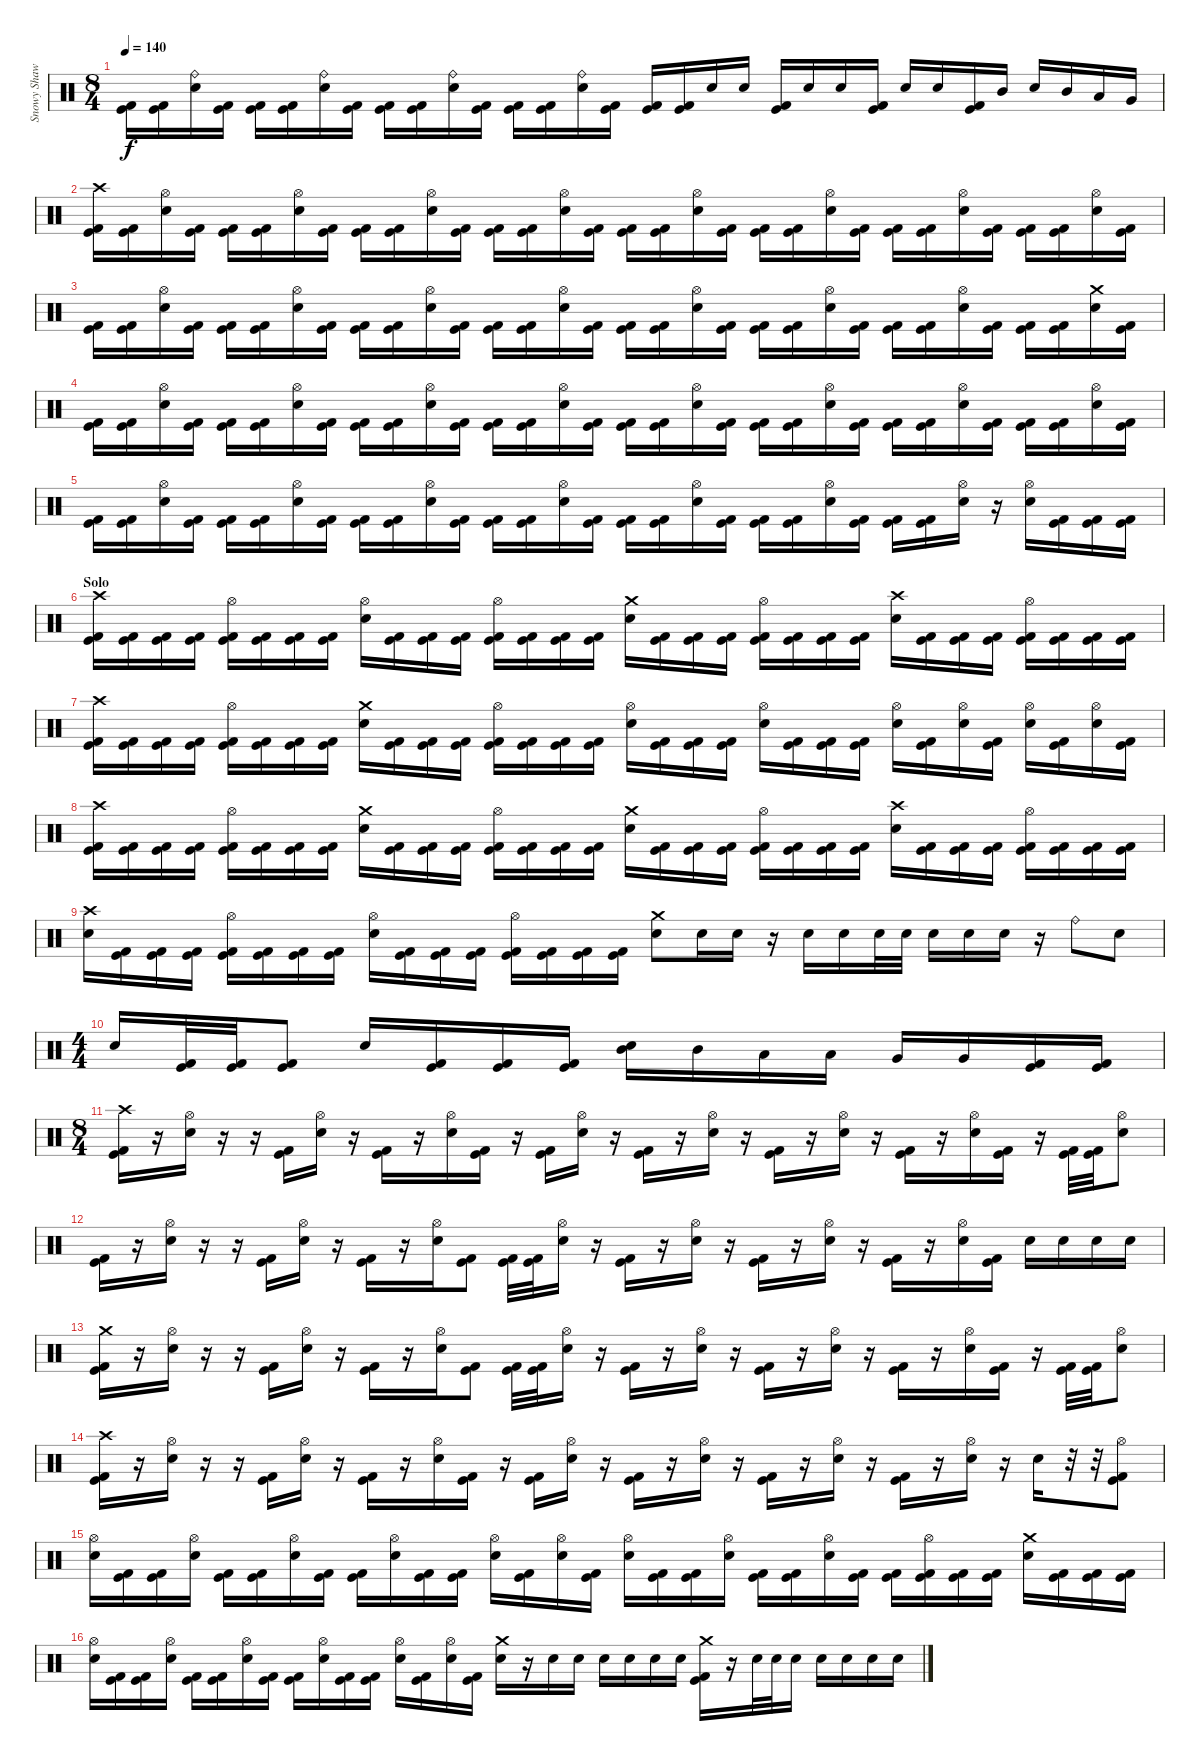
\track ("Snowy Shaw" "Snowy Shaw") {instrument percussion}
\staff {score}
\articulation defaults
\ts (8 4)
\tempo 140
\clef neutral
\ks c
("Kick (hit)" "Kick (hit) 2").16{dy f} ("Kick (hit)" "Kick (hit) 2").16 ("Ride (bell)" "Electric Snare (hit)").16 ("Kick (hit)" "Kick (hit) 2").16 ("Kick (hit)" "Kick (hit) 2").16 ("Kick (hit)" "Kick (hit) 2").16 ("Ride (bell)" "Electric Snare (hit)").16 ("Kick (hit)" "Kick (hit) 2").16 ("Kick (hit)" "Kick (hit) 2").16 ("Kick (hit)" "Kick (hit) 2").16 ("Ride (bell)" "Electric Snare (hit)").16 ("Kick (hit)" "Kick (hit) 2").16 ("Kick (hit)" "Kick (hit) 2").16 ("Kick (hit)" "Kick (hit) 2").16 ("Ride (bell)" "Electric Snare (hit)").16 ("Kick (hit)" "Kick (hit) 2").16 ("Kick (hit)" "Kick (hit) 2").16 ("Kick (hit)" "Kick (hit) 2").16 "Electric Snare (hit)".16 "Electric Snare (hit)".16 ("Kick (hit)" "Kick (hit) 2").16 "Electric Snare (hit)".16 "Electric Snare (hit)".16 ("Kick (hit)" "Kick (hit) 2").16 "Electric Snare (hit)".16 "Electric Snare (hit)".16 ("Kick (hit) 2" "Kick (hit)").16 "Mid Tom (hit)".16 "Electric Snare (hit)".16 "Mid Tom (hit)".16 "Low Tom (hit)".16 "Very Low Tom (hit)".16 |
("Crash high (hit)" "Kick (hit)" "Kick (hit) 2").16 ("Kick (hit)" "Kick (hit) 2").16 ("Hi-Hat (open)" "Electric Snare (hit)").16 ("Kick (hit)" "Kick (hit) 2").16 ("Kick (hit)" "Kick (hit) 2").16 ("Kick (hit)" "Kick (hit) 2").16 ("Hi-Hat (open)" "Electric Snare (hit)").16 ("Kick (hit)" "Kick (hit) 2").16 ("Kick (hit)" "Kick (hit) 2").16 ("Kick (hit)" "Kick (hit) 2").16 ("Hi-Hat (open)" "Electric Snare (hit)").16 ("Kick (hit)" "Kick (hit) 2").16 ("Kick (hit)" "Kick (hit) 2").16 ("Kick (hit)" "Kick (hit) 2").16 ("Hi-Hat (open)" "Electric Snare (hit)").16 ("Kick (hit)" "Kick (hit) 2").16 ("Kick (hit)" "Kick (hit) 2").16 ("Kick (hit)" "Kick (hit) 2").16 ("Hi-Hat (open)" "Electric Snare (hit)").16 ("Kick (hit)" "Kick (hit) 2").16 ("Kick (hit)" "Kick (hit) 2").16 ("Kick (hit)" "Kick (hit) 2").16 ("Hi-Hat (open)" "Electric Snare (hit)").16 ("Kick (hit)" "Kick (hit) 2").16 ("Kick (hit)" "Kick (hit) 2").16 ("Kick (hit)" "Kick (hit) 2").16 ("Hi-Hat (open)" "Electric Snare (hit)").16 ("Kick (hit)" "Kick (hit) 2").16 ("Kick (hit)" "Kick (hit) 2").16 ("Kick (hit)" "Kick (hit) 2").16 ("Hi-Hat (open)" "Electric Snare (hit)").16 ("Kick (hit)" "Kick (hit) 2").16 |
("Kick (hit)" "Kick (hit) 2").16 ("Kick (hit)" "Kick (hit) 2").16 ("Hi-Hat (open)" "Electric Snare (hit)").16 ("Kick (hit)" "Kick (hit) 2").16 ("Kick (hit)" "Kick (hit) 2").16 ("Kick (hit)" "Kick (hit) 2").16 ("Hi-Hat (open)" "Electric Snare (hit)").16 ("Kick (hit)" "Kick (hit) 2").16 ("Kick (hit)" "Kick (hit) 2").16 ("Kick (hit)" "Kick (hit) 2").16 ("Hi-Hat (open)" "Electric Snare (hit)").16 ("Kick (hit)" "Kick (hit) 2").16 ("Kick (hit)" "Kick (hit) 2").16 ("Kick (hit)" "Kick (hit) 2").16 ("Hi-Hat (open)" "Electric Snare (hit)").16 ("Kick (hit)" "Kick (hit) 2").16 ("Kick (hit)" "Kick (hit) 2").16 ("Kick (hit)" "Kick (hit) 2").16 ("Hi-Hat (open)" "Electric Snare (hit)").16 ("Kick (hit)" "Kick (hit) 2").16 ("Kick (hit)" "Kick (hit) 2").16 ("Kick (hit)" "Kick (hit) 2").16 ("Hi-Hat (open)" "Electric Snare (hit)").16 ("Kick (hit)" "Kick (hit) 2").16 ("Kick (hit)" "Kick (hit) 2").16 ("Kick (hit)" "Kick (hit) 2").16 ("Hi-Hat (open)" "Electric Snare (hit)").16 ("Kick (hit)" "Kick (hit) 2").16 ("Kick (hit)" "Kick (hit) 2").16 ("Kick (hit)" "Kick (hit) 2").16 ("Crash medium (hit)" "Electric Snare (hit)").16 ("Kick (hit)" "Kick (hit) 2").16 |
("Kick (hit)" "Kick (hit) 2").16 ("Kick (hit)" "Kick (hit) 2").16 ("Hi-Hat (open)" "Electric Snare (hit)").16 ("Kick (hit)" "Kick (hit) 2").16 ("Kick (hit)" "Kick (hit) 2").16 ("Kick (hit)" "Kick (hit) 2").16 ("Hi-Hat (open)" "Electric Snare (hit)").16 ("Kick (hit)" "Kick (hit) 2").16 ("Kick (hit)" "Kick (hit) 2").16 ("Kick (hit)" "Kick (hit) 2").16 ("Hi-Hat (open)" "Electric Snare (hit)").16 ("Kick (hit)" "Kick (hit) 2").16 ("Kick (hit)" "Kick (hit) 2").16 ("Kick (hit)" "Kick (hit) 2").16 ("Hi-Hat (open)" "Electric Snare (hit)").16 ("Kick (hit)" "Kick (hit) 2").16 ("Kick (hit)" "Kick (hit) 2").16 ("Kick (hit)" "Kick (hit) 2").16 ("Hi-Hat (open)" "Electric Snare (hit)").16 ("Kick (hit)" "Kick (hit) 2").16 ("Kick (hit)" "Kick (hit) 2").16 ("Kick (hit)" "Kick (hit) 2").16 ("Hi-Hat (open)" "Electric Snare (hit)").16 ("Kick (hit)" "Kick (hit) 2").16 ("Kick (hit)" "Kick (hit) 2").16 ("Kick (hit)" "Kick (hit) 2").16 ("Hi-Hat (open)" "Electric Snare (hit)").16 ("Kick (hit)" "Kick (hit) 2").16 ("Kick (hit)" "Kick (hit) 2").16 ("Kick (hit)" "Kick (hit) 2").16 ("Hi-Hat (open)" "Electric Snare (hit)").16 ("Kick (hit)" "Kick (hit) 2").16 |
("Kick (hit)" "Kick (hit) 2").16 ("Kick (hit)" "Kick (hit) 2").16 ("Hi-Hat (open)" "Electric Snare (hit)").16 ("Kick (hit)" "Kick (hit) 2").16 ("Kick (hit)" "Kick (hit) 2").16 ("Kick (hit)" "Kick (hit) 2").16 ("Hi-Hat (open)" "Electric Snare (hit)").16 ("Kick (hit)" "Kick (hit) 2").16 ("Kick (hit)" "Kick (hit) 2").16 ("Kick (hit)" "Kick (hit) 2").16 ("Hi-Hat (open)" "Electric Snare (hit)").16 ("Kick (hit)" "Kick (hit) 2").16 ("Kick (hit)" "Kick (hit) 2").16 ("Kick (hit)" "Kick (hit) 2").16 ("Hi-Hat (open)" "Electric Snare (hit)").16 ("Kick (hit)" "Kick (hit) 2").16 ("Kick (hit)" "Kick (hit) 2").16 ("Kick (hit)" "Kick (hit) 2").16 ("Hi-Hat (open)" "Electric Snare (hit)").16 ("Kick (hit)" "Kick (hit) 2").16 ("Kick (hit)" "Kick (hit) 2").16 ("Kick (hit)" "Kick (hit) 2").16 ("Hi-Hat (open)" "Electric Snare (hit)").16 ("Kick (hit)" "Kick (hit) 2").16 ("Kick (hit)" "Kick (hit) 2").16 ("Kick (hit)" "Kick (hit) 2").16 ("Hi-Hat (open)" "Electric Snare (hit)").16 r.16 ("Hi-Hat (open)" "Electric Snare (hit)").16 ("Kick (hit)" "Kick (hit) 2").16 ("Kick (hit) 2" "Kick (hit)").16 ("Kick (hit)" "Kick (hit) 2").16 |
\section ("" "Solo")
("Crash high (hit)" "Kick (hit)" "Kick (hit) 2").16 ("Kick (hit)" "Kick (hit) 2").16 ("Kick (hit)" "Kick (hit) 2").16 ("Kick (hit)" "Kick (hit) 2").16 ("Hi-Hat (open)" "Kick (hit)" "Kick (hit) 2").16 ("Kick (hit)" "Kick (hit) 2").16 ("Kick (hit)" "Kick (hit) 2").16 ("Kick (hit)" "Kick (hit) 2").16 ("Hi-Hat (open)" "Electric Snare (hit)").16 ("Kick (hit)" "Kick (hit) 2").16 ("Kick (hit)" "Kick (hit) 2").16 ("Kick (hit)" "Kick (hit) 2").16 ("Hi-Hat (open)" "Kick (hit)" "Kick (hit) 2").16 ("Kick (hit)" "Kick (hit) 2").16 ("Kick (hit)" "Kick (hit) 2").16 ("Kick (hit)" "Kick (hit) 2").16 ("Crash medium (hit)" "Electric Snare (hit)").16 ("Kick (hit)" "Kick (hit) 2").16 ("Kick (hit)" "Kick (hit) 2").16 ("Kick (hit)" "Kick (hit) 2").16 ("Hi-Hat (open)" "Kick (hit)" "Kick (hit) 2").16 ("Kick (hit)" "Kick (hit) 2").16 ("Kick (hit)" "Kick (hit) 2").16 ("Kick (hit)" "Kick (hit) 2").16 ("Crash high (hit)" "Electric Snare (hit)").16 ("Kick (hit)" "Kick (hit) 2").16 ("Kick (hit)" "Kick (hit) 2").16 ("Kick (hit)" "Kick (hit) 2").16 ("Hi-Hat (open)" "Kick (hit)" "Kick (hit) 2").16 ("Kick (hit)" "Kick (hit) 2").16 ("Kick (hit)" "Kick (hit) 2").16 ("Kick (hit)" "Kick (hit) 2").16 |
("Crash high (hit)" "Kick (hit)" "Kick (hit) 2").16 ("Kick (hit)" "Kick (hit) 2").16 ("Kick (hit)" "Kick (hit) 2").16 ("Kick (hit)" "Kick (hit) 2").16 ("Hi-Hat (open)" "Kick (hit)" "Kick (hit) 2").16 ("Kick (hit)" "Kick (hit) 2").16 ("Kick (hit)" "Kick (hit) 2").16 ("Kick (hit)" "Kick (hit) 2").16 ("Crash medium (hit)" "Electric Snare (hit)").16 ("Kick (hit)" "Kick (hit) 2").16 ("Kick (hit)" "Kick (hit) 2").16 ("Kick (hit)" "Kick (hit) 2").16 ("Hi-Hat (open)" "Kick (hit)" "Kick (hit) 2").16 ("Kick (hit)" "Kick (hit) 2").16 ("Kick (hit)" "Kick (hit) 2").16 ("Kick (hit)" "Kick (hit) 2").16 ("Hi-Hat (open)" "Electric Snare (hit)").16 ("Kick (hit)" "Kick (hit) 2").16 ("Kick (hit)" "Kick (hit) 2").16 ("Kick (hit)" "Kick (hit) 2").16 ("Hi-Hat (open)" "Electric Snare (hit)").16 ("Kick (hit)" "Kick (hit) 2").16 ("Kick (hit)" "Kick (hit) 2").16 ("Kick (hit)" "Kick (hit) 2").16 ("Hi-Hat (open)" "Electric Snare (hit)").16 ("Kick (hit)" "Kick (hit) 2").16 ("Hi-Hat (open)" "Electric Snare (hit)").16 ("Kick (hit)" "Kick (hit) 2").16 ("Hi-Hat (open)" "Electric Snare (hit)").16 ("Kick (hit)" "Kick (hit) 2").16 ("Hi-Hat (open)" "Electric Snare (hit)").16 ("Kick (hit)" "Kick (hit) 2").16 |
("Crash high (hit)" "Kick (hit)" "Kick (hit) 2").16 ("Kick (hit)" "Kick (hit) 2").16 ("Kick (hit)" "Kick (hit) 2").16 ("Kick (hit)" "Kick (hit) 2").16 ("Hi-Hat (open)" "Kick (hit)" "Kick (hit) 2").16 ("Kick (hit)" "Kick (hit) 2").16 ("Kick (hit)" "Kick (hit) 2").16 ("Kick (hit)" "Kick (hit) 2").16 ("Crash medium (hit)" "Electric Snare (hit)").16 ("Kick (hit)" "Kick (hit) 2").16 ("Kick (hit)" "Kick (hit) 2").16 ("Kick (hit)" "Kick (hit) 2").16 ("Hi-Hat (open)" "Kick (hit)" "Kick (hit) 2").16 ("Kick (hit)" "Kick (hit) 2").16 ("Kick (hit)" "Kick (hit) 2").16 ("Kick (hit)" "Kick (hit) 2").16 ("Crash medium (hit)" "Electric Snare (hit)").16 ("Kick (hit)" "Kick (hit) 2").16 ("Kick (hit)" "Kick (hit) 2").16 ("Kick (hit)" "Kick (hit) 2").16 ("Hi-Hat (open)" "Kick (hit)" "Kick (hit) 2").16 ("Kick (hit)" "Kick (hit) 2").16 ("Kick (hit)" "Kick (hit) 2").16 ("Kick (hit)" "Kick (hit) 2").16 ("Crash high (hit)" "Electric Snare (hit)").16 ("Kick (hit)" "Kick (hit) 2").16 ("Kick (hit)" "Kick (hit) 2").16 ("Kick (hit)" "Kick (hit) 2").16 ("Hi-Hat (open)" "Kick (hit)" "Kick (hit) 2").16 ("Kick (hit)" "Kick (hit) 2").16 ("Kick (hit)" "Kick (hit) 2").16 ("Kick (hit)" "Kick (hit) 2").16 |
("Crash high (hit)" "Electric Snare (hit)").16 ("Kick (hit)" "Kick (hit) 2").16 ("Kick (hit)" "Kick (hit) 2").16 ("Kick (hit)" "Kick (hit) 2").16 ("Hi-Hat (open)" "Kick (hit)" "Kick (hit) 2").16 ("Kick (hit)" "Kick (hit) 2").16 ("Kick (hit)" "Kick (hit) 2").16 ("Kick (hit)" "Kick (hit) 2").16 ("Hi-Hat (open)" "Electric Snare (hit)").16 ("Kick (hit)" "Kick (hit) 2").16 ("Kick (hit)" "Kick (hit) 2").16 ("Kick (hit)" "Kick (hit) 2").16 ("Hi-Hat (open)" "Kick (hit)" "Kick (hit) 2").16 ("Kick (hit)" "Kick (hit) 2").16 ("Kick (hit)" "Kick (hit) 2").16 ("Kick (hit)" "Kick (hit) 2").16 ("Crash medium (hit)" "Electric Snare (hit)").8 "Electric Snare (hit)".16 "Electric Snare (hit)".16 r.16 "Electric Snare (hit)".16 "Electric Snare (hit)".16 "Electric Snare (hit)".32 "Electric Snare (hit)".32 "Electric Snare (hit)".16 "Electric Snare (hit)".16 "Electric Snare (hit)".16 r.16 "Ride (bell)".8 "Electric Snare (hit)".8 |
\ts (4 4)
"Electric Snare (hit)".16 ("Kick (hit)" "Kick (hit) 2").32 ("Kick (hit)" "Kick (hit) 2").32 ("Kick (hit)" "Kick (hit) 2").8 "Electric Snare (hit)".16 ("Kick (hit)" "Kick (hit) 2").16 ("Kick (hit)" "Kick (hit) 2").16 ("Kick (hit)" "Kick (hit) 2").16 ("Mid Tom (hit)" "Electric Snare (hit)").16 "Mid Tom (hit)".16 "Low Tom (hit)".16 "Low Tom (hit)".16 "Very Low Tom (hit)".16 "Very Low Tom (hit)".16 ("Kick (hit) 2" "Kick (hit)").16 ("Kick (hit) 2" "Kick (hit)").16 |
\ts (8 4)
("Crash high (hit)" "Kick (hit)" "Kick (hit) 2").16 r.16 ("Hi-Hat (open)" "Electric Snare (hit)").16 r.16 r.16 ("Kick (hit)" "Kick (hit) 2").16 ("Hi-Hat (open)" "Electric Snare (hit)").16 r.16 ("Kick (hit)" "Kick (hit) 2").16 r.16 ("Hi-Hat (open)" "Electric Snare (hit)").16 ("Kick (hit)" "Kick (hit) 2").16 r.16 ("Kick (hit)" "Kick (hit) 2").16 ("Hi-Hat (open)" "Electric Snare (hit)").16 r.16 ("Kick (hit)" "Kick (hit) 2").16 r.16 ("Hi-Hat (open)" "Electric Snare (hit)").16 r.16 ("Kick (hit)" "Kick (hit) 2").16 r.16 ("Hi-Hat (open)" "Electric Snare (hit)").16 r.16 ("Kick (hit)" "Kick (hit) 2").16 r.16 ("Hi-Hat (open)" "Electric Snare (hit)").16 ("Kick (hit)" "Kick (hit) 2").16 r.16 ("Kick (hit)" "Kick (hit) 2").32 ("Kick (hit)" "Kick (hit) 2").32 ("Hi-Hat (open)" "Electric Snare (hit)").8 |
("Kick (hit)" "Kick (hit) 2").16 r.16 ("Hi-Hat (open)" "Electric Snare (hit)").16 r.16 r.16 ("Kick (hit)" "Kick (hit) 2").16 ("Hi-Hat (open)" "Electric Snare (hit)").16 r.16 ("Kick (hit)" "Kick (hit) 2").16 r.16 ("Hi-Hat (open)" "Electric Snare (hit)").16 ("Kick (hit)" "Kick (hit) 2").8 ("Kick (hit) 2" "Kick (hit)").32 ("Kick (hit)" "Kick (hit) 2").32 ("Hi-Hat (open)" "Electric Snare (hit)").16 r.16 ("Kick (hit)" "Kick (hit) 2").16 r.16 ("Hi-Hat (open)" "Electric Snare (hit)").16 r.16 ("Kick (hit)" "Kick (hit) 2").16 r.16 ("Hi-Hat (open)" "Electric Snare (hit)").16 r.16 ("Kick (hit)" "Kick (hit) 2").16 r.16 ("Hi-Hat (open)" "Electric Snare (hit)").16 ("Kick (hit)" "Kick (hit) 2").16 "Electric Snare (hit)".16 "Electric Snare (hit)".16 "Electric Snare (hit)".16 "Electric Snare (hit)".16 |
("Crash medium (hit)" "Kick (hit)" "Kick (hit) 2").16 r.16 ("Hi-Hat (open)" "Electric Snare (hit)").16 r.16 r.16 ("Kick (hit)" "Kick (hit) 2").16 ("Hi-Hat (open)" "Electric Snare (hit)").16 r.16 ("Kick (hit)" "Kick (hit) 2").16 r.16 ("Hi-Hat (open)" "Electric Snare (hit)").16 ("Kick (hit)" "Kick (hit) 2").8 ("Kick (hit) 2" "Kick (hit)").32 ("Kick (hit)" "Kick (hit) 2").32 ("Hi-Hat (open)" "Electric Snare (hit)").16 r.16 ("Kick (hit)" "Kick (hit) 2").16 r.16 ("Hi-Hat (open)" "Electric Snare (hit)").16 r.16 ("Kick (hit)" "Kick (hit) 2").16 r.16 ("Hi-Hat (open)" "Electric Snare (hit)").16 r.16 ("Kick (hit)" "Kick (hit) 2").16 r.16 ("Hi-Hat (open)" "Electric Snare (hit)").16 ("Kick (hit)" "Kick (hit) 2").16 r.16 ("Kick (hit)" "Kick (hit) 2").32 ("Kick (hit)" "Kick (hit) 2").32 ("Hi-Hat (open)" "Electric Snare (hit)").8 |
("Crash high (hit)" "Kick (hit)" "Kick (hit) 2").16 r.16 ("Hi-Hat (open)" "Electric Snare (hit)").16 r.16 r.16 ("Kick (hit)" "Kick (hit) 2").16 ("Hi-Hat (open)" "Electric Snare (hit)").16 r.16 ("Kick (hit)" "Kick (hit) 2").16 r.16 ("Hi-Hat (open)" "Electric Snare (hit)").16 ("Kick (hit)" "Kick (hit) 2").16 r.16 ("Kick (hit)" "Kick (hit) 2").16 ("Hi-Hat (open)" "Electric Snare (hit)").16 r.16 ("Kick (hit)" "Kick (hit) 2").16 r.16 ("Hi-Hat (open)" "Electric Snare (hit)").16 r.16 ("Kick (hit)" "Kick (hit) 2").16 r.16 ("Hi-Hat (open)" "Electric Snare (hit)").16 r.16 ("Kick (hit)" "Kick (hit) 2").16 r.16 ("Hi-Hat (open)" "Electric Snare (hit)").16 r.16 "Electric Snare (hit)".16 r.32 r.32 ("Hi-Hat (open)" "Kick (hit) 2" "Kick (hit)").8 |
("Hi-Hat (open)" "Electric Snare (hit)").16 ("Kick (hit)" "Kick (hit) 2").16 ("Kick (hit)" "Kick (hit) 2").16 ("Hi-Hat (open)" "Electric Snare (hit)").16 ("Kick (hit)" "Kick (hit) 2").16 ("Kick (hit)" "Kick (hit) 2").16 ("Hi-Hat (open)" "Electric Snare (hit)").16 ("Kick (hit)" "Kick (hit) 2").16 ("Kick (hit)" "Kick (hit) 2").16 ("Hi-Hat (open)" "Electric Snare (hit)").16 ("Kick (hit)" "Kick (hit) 2").16 ("Kick (hit)" "Kick (hit) 2").16 ("Hi-Hat (open)" "Electric Snare (hit)").16 ("Kick (hit)" "Kick (hit) 2").16 ("Hi-Hat (open)" "Electric Snare (hit)").16 ("Kick (hit)" "Kick (hit) 2").16 ("Hi-Hat (open)" "Electric Snare (hit)").16 ("Kick (hit)" "Kick (hit) 2").16 ("Kick (hit)" "Kick (hit) 2").16 ("Hi-Hat (open)" "Electric Snare (hit)").16 ("Kick (hit)" "Kick (hit) 2").16 ("Kick (hit)" "Kick (hit) 2").16 ("Hi-Hat (open)" "Electric Snare (hit)").16 ("Kick (hit)" "Kick (hit) 2").16 ("Kick (hit)" "Kick (hit) 2").16 ("Hi-Hat (open)" "Kick (hit) 2" "Kick (hit)").16 ("Kick (hit)" "Kick (hit) 2").16 ("Kick (hit)" "Kick (hit) 2").16 ("Crash medium (hit)" "Electric Snare (hit)").16 ("Kick (hit)" "Kick (hit) 2").16 ("Kick (hit)" "Kick (hit) 2").16 ("Kick (hit)" "Kick (hit) 2").16 |
("Hi-Hat (open)" "Electric Snare (hit)").16 ("Kick (hit)" "Kick (hit) 2").16 ("Kick (hit)" "Kick (hit) 2").16 ("Hi-Hat (open)" "Electric Snare (hit)").16 ("Kick (hit)" "Kick (hit) 2").16 ("Kick (hit)" "Kick (hit) 2").16 ("Hi-Hat (open)" "Electric Snare (hit)").16 ("Kick (hit)" "Kick (hit) 2").16 ("Kick (hit)" "Kick (hit) 2").16 ("Hi-Hat (open)" "Electric Snare (hit)").16 ("Kick (hit)" "Kick (hit) 2").16 ("Kick (hit)" "Kick (hit) 2").16 ("Hi-Hat (open)" "Electric Snare (hit)").16 ("Kick (hit)" "Kick (hit) 2").16 ("Hi-Hat (open)" "Electric Snare (hit)").16 ("Kick (hit)" "Kick (hit) 2").16 ("Crash medium (hit)" "Electric Snare (hit)").16 r.16 "Electric Snare (hit)".16 "Electric Snare (hit)".16 "Electric Snare (hit)".16 "Electric Snare (hit)".16 "Electric Snare (hit)".16 "Electric Snare (hit)".16 ("Crash medium (hit)" "Kick (hit) 2" "Kick (hit)").16 r.16 "Electric Snare (hit)".32 "Electric Snare (hit)".32 "Electric Snare (hit)".16 "Electric Snare (hit)".16 "Electric Snare (hit)".16 "Electric Snare (hit)".16 "Electric Snare (hit)".16
